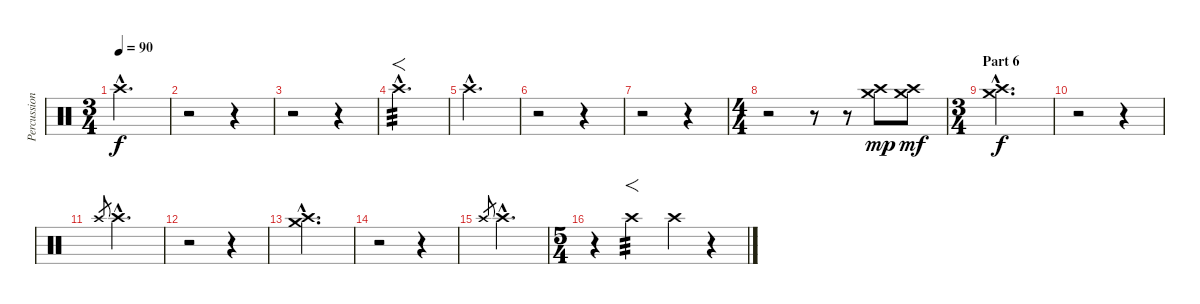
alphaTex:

\track ("Percussions" "Percussion") {instrument percussion}
\staff {score}
\articulation defaults
\ts (3 4)
\tempo 90
\clef neutral
\ks c "Crash high (hit)"{hac}.2{d dy f}
|
r.2 r.4 |
r.2 r.4 |
"Crash high (hit)"{hac}.2{f d tp 3} |
"Crash high (hit)"{hac}.2{d} |
r.2 r.4 |
r.2 r.4 |
\ts (4 4)
r.2 r.8 r.8 ("Crash high (hit)" "Crash medium (hit)").8{dy mp} ("Crash high (hit)" "Crash medium (hit)").8{dy mf} |
\ts (3 4)
\section ("" "Part 6")
("Crash high (hit)"{hac} "Crash medium (hit)"{hac}).2{d dy f} |
r.2 r.4 |
"Crash high (hit)".8{gr} "Crash high (hit)"{hac}.2{d} |
r.2 r.4 |
("Crash high (hit)"{hac} "Crash medium (hit)"{hac}).2{d} |
r.2 r.4 |
"Crash high (hit)".8{gr} "Crash high (hit)"{hac}.2{d} |
\ts (5 4)
r.4 "Crash high (hit)".2{f tp 3} "Crash high (hit)".4 r.4
